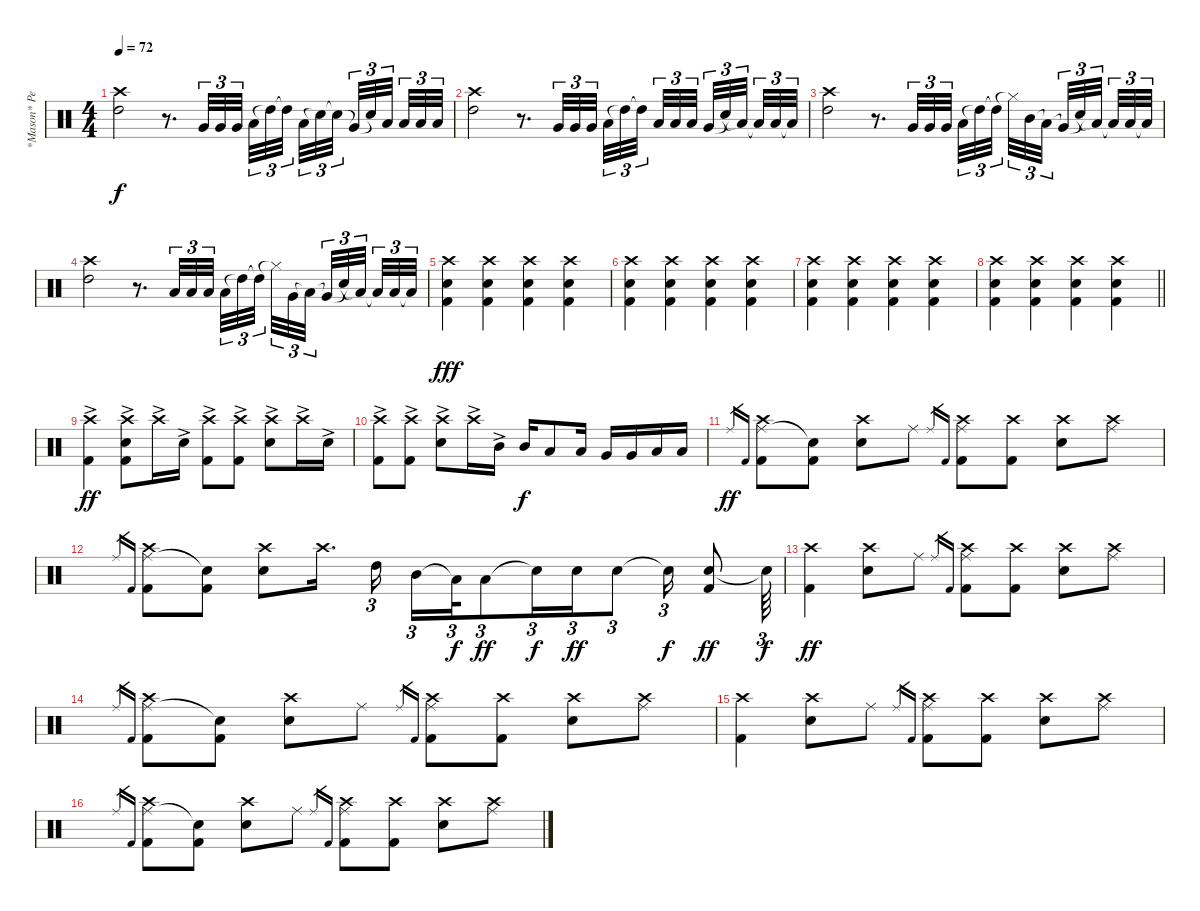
\track ("*Mason* Percussion" "*Mason* Pe") {instrument percussion}
\staff {score}
\articulation defaults
\ts (4 4)
\tempo 72
\clef neutral
\ks c
("Crash high (hit)" "High Tom (hit)").2{dy f} r.8{d} "Very Low Tom (hit)".32{tu (3 2)} "Very Low Tom (hit)".32{tu (3 2)} "Very Low Tom (hit)".32{tu (3 2)} "Low Tom (hit)".32{tu (3 2)} "High Tom (hit)"{t}.32{tu (3 2)} "High Tom (hit)"{t}.32{tu (3 2) beam splitsecondary} "Low Tom (hit)".32{tu (3 2)} "Snare (hit)"{t}.32{tu (3 2)} "Snare (hit)"{t}.32{tu (3 2) beam splitsecondary} "Very Low Tom (hit)"{t}.32{tu (3 2)} "Snare (hit)"{t}.32{tu (3 2)} "Low Tom (hit)".32{tu (3 2) beam splitsecondary} "Low Tom (hit)".32{tu (3 2)} "Low Tom (hit)".32{tu (3 2)} "Low Tom (hit)".32{tu (3 2)} |
("Crash high (hit)" "High Tom (hit)").2{volume 16} r.8{d} "Very Low Tom (hit)".32{tu (3 2)} "Very Low Tom (hit)".32{tu (3 2)} "Very Low Tom (hit)".32{tu (3 2)} "Low Tom (hit)".32{tu (3 2)} "High Tom (hit)"{t}.32{tu (3 2)} "High Tom (hit)"{t}.32{tu (3 2) beam splitsecondary} "Low Tom (hit)".32{tu (3 2)} "Low Tom (hit)".32{tu (3 2)} "Low Tom (hit)".32{tu (3 2) beam splitsecondary} "Very Low Tom (hit)".32{tu (3 2)} "Snare (hit)"{t}.32{tu (3 2)} "Low Tom (hit)"{t}.32{tu (3 2) beam splitsecondary} "Low Tom (hit)"{t}.32{tu (3 2)} "Low Tom (hit)".32{tu (3 2)} "Low Tom (hit)"{t}.32{tu (3 2)} |
("Crash high (hit)" "High Tom (hit)").2 r.8{d} "Very Low Tom (hit)".32{tu (3 2)} "Very Low Tom (hit)".32{tu (3 2)} "Very Low Tom (hit)".32{tu (3 2)} "Low Tom (hit)".32{tu (3 2)} "High Tom (hit)"{t}.32{tu (3 2)} "High Tom (hit)"{t}.32{tu (3 2) beam splitsecondary} "Hi-Hat (closed)"{t}.32{tu (3 2)} "Mid Tom (hit)".32{tu (3 2)} "Low Tom (hit)"{t}.32{tu (3 2) beam splitsecondary} "Very Low Tom (hit)"{t}.32{tu (3 2)} "Snare (hit)"{t}.32{tu (3 2)} "Low Tom (hit)"{t}.32{tu (3 2) beam splitsecondary} "Low Tom (hit)"{t}.32{tu (3 2) volume 0} "Low Tom (hit)".32{tu (3 2)} "Low Tom (hit)"{t}.32{tu (3 2)} |
("Crash high (hit)" "High Tom (hit)").2 r.8{d} "Low Floor Tom (hit)".32{tu (3 2)} "Low Floor Tom (hit)".32{tu (3 2)} "Low Floor Tom (hit)".32{tu (3 2)} "Low Tom (hit)".32{tu (3 2)} "High Tom (hit)"{t}.32{tu (3 2)} "High Tom (hit)"{t}.32{tu (3 2) beam splitsecondary} "Hi-Hat (closed)"{t}.32{tu (3 2)} "Very Low Tom (hit)".32{tu (3 2)} "Low Tom (hit)"{t}.32{tu (3 2) beam splitsecondary} "Very Low Tom (hit)"{t}.32{tu (3 2)} "Snare (hit)"{t}.32{tu (3 2)} "Low Tom (hit)"{t}.32{tu (3 2) beam splitsecondary} "Low Tom (hit)"{t}.32{tu (3 2)} "Low Tom (hit)".32{tu (3 2)} "Low Tom (hit)"{t}.32{tu (3 2)} |
("Crash high (hit)" "Snare (hit) 2" "Kick (hit) 2").4{dy fff volume 16 balance 8} ("Crash high (hit)" "Snare (hit) 2" "Kick (hit) 2").4 ("Crash high (hit)" "Snare (hit) 2" "Kick (hit) 2").4 ("Crash high (hit)" "Snare (hit) 2" "Kick (hit) 2").4 |
("Crash high (hit)" "Snare (hit) 2" "Kick (hit) 2").4 ("Crash high (hit)" "Snare (hit) 2" "Kick (hit) 2").4 ("Crash high (hit)" "Snare (hit) 2" "Kick (hit) 2").4 ("Crash high (hit)" "Snare (hit) 2" "Kick (hit) 2").4 |
("Crash high (hit)" "Snare (hit) 2" "Kick (hit) 2").4 ("Crash high (hit)" "Snare (hit) 2" "Kick (hit) 2").4 ("Crash high (hit)" "Snare (hit) 2" "Kick (hit) 2").4 ("Crash high (hit)" "Snare (hit) 2" "Kick (hit) 2").4 |
\barLineRight lightlight
("Crash high (hit)" "Snare (hit) 2" "Kick (hit) 2").4 ("Crash high (hit)" "Snare (hit) 2" "Kick (hit) 2").4 ("Crash high (hit)" "Snare (hit) 2" "Kick (hit) 2").4 ("Crash high (hit)" "Snare (hit) 2" "Kick (hit) 2").4 |
("Crash high (hit)"{ac} "Kick (hit) 2"{ac}).4{dy ff volume 16 balance 2} ("Crash high (hit)"{ac} "Snare (hit) 2"{ac} "Kick (hit) 2"{ac}).8 "Crash high (hit)"{ac}.16 "Snare (hit) 2"{ac}.16 ("Crash high (hit)"{ac} "Kick (hit) 2"{ac}).8 ("Crash high (hit)"{ac} "Kick (hit) 2"{ac}).8 ("Crash high (hit)"{ac} "Snare (hit) 2"{ac}).8 "Crash high (hit)"{ac}.16 "Snare (hit) 2"{ac}.16 |
("Crash high (hit)"{ac} "Kick (hit) 2"{ac}).8 ("Crash high (hit)"{ac} "Kick (hit) 2"{ac}).8 ("Crash high (hit)"{ac} "Snare (hit) 2"{ac}).8 "Crash high (hit)"{ac}.16 "Mid Tom (hit)"{ac}.16 "Mid Tom (hit)".16{dy f} "Low Tom (hit)".8 "Low Tom (hit)".16 "Very Low Tom (hit)".16 "Very Low Tom (hit)".16 "Low Floor Tom (hit)".16 "Low Floor Tom (hit)".16 |
"Ride (middle)".16{gr dy ff} "Kick (hit) 2".16{gr} ("Ride (middle)" "Crash high (hit)" "Kick (hit) 2").8 ("Snare (hit)"{t} "Kick (hit) 2").8 ("Crash high (hit)" "Snare (hit) 2").8 "Ride (middle)".8 "Ride (middle)".16{gr} "Kick (hit) 2".16{gr} ("Ride (middle)" "Crash high (hit)" "Kick (hit) 2").8 ("Crash high (hit)" "Kick (hit) 2").8 ("Crash high (hit)" "Snare (hit) 2").8 ("Ride (middle)" "Crash high (hit)").8 |
"Ride (middle)".16{gr} "Kick (hit) 2".16{gr} ("Ride (middle)" "Crash high (hit)" "Kick (hit) 2").8 ("Snare (hit)"{t} "Kick (hit) 2").8 ("Crash high (hit)" "Snare (hit) 2").8 "Crash high (hit)".16{d} "High Tom (hit)".16{tu (3 2)} "Mid Tom (hit)".16{tu (3 2)} "Low Tom (hit)"{t}.32{tu (3 2) dy f} "Low Tom (hit)".8{tu (3 2) dy ff} "Snare (hit)"{t}.16{tu (3 2) dy f} "Snare (hit) 2".16{tu (3 2) dy ff} "Snare (hit) 2".8{tu (3 2)} "Snare (hit) 2"{t}.16{tu (3 2) dy f} ("Snare (hit) 2" "Kick (hit) 2").8{dy ff} "Snare (hit)"{t}.64{tu (3 2) dy f} |
("Crash high (hit)" "Kick (hit) 2").4{dy ff} ("Crash high (hit)" "Snare (hit) 2").8 "Ride (middle)".8 "Ride (middle)".16{gr} "Kick (hit) 2".16{gr} ("Ride (middle)" "Crash high (hit)" "Kick (hit) 2").8 ("Crash high (hit)" "Kick (hit) 2").8 ("Crash high (hit)" "Snare (hit) 2").8 ("Ride (middle)" "Crash high (hit)").8 |
"Ride (middle)".16{gr} "Kick (hit) 2".16{gr} ("Ride (middle)" "Crash high (hit)" "Kick (hit) 2").8 ("Snare (hit)"{t} "Kick (hit) 2").8 ("Crash high (hit)" "Snare (hit) 2").8 "Ride (middle)".8 "Ride (middle)".16{gr} "Kick (hit) 2".16{gr} ("Ride (middle)" "Crash high (hit)" "Kick (hit) 2").8 ("Crash high (hit)" "Kick (hit) 2").8 ("Crash high (hit)" "Snare (hit) 2").8 ("Ride (middle)" "Crash high (hit)").8 |
("Crash high (hit)" "Kick (hit) 2").4 ("Crash high (hit)" "Snare (hit) 2").8 "Ride (middle)".8 "Ride (middle)".16{gr} "Kick (hit) 2".16{gr} ("Ride (middle)" "Crash high (hit)" "Kick (hit) 2").8 ("Crash high (hit)" "Kick (hit) 2").8 ("Crash high (hit)" "Snare (hit) 2").8 ("Ride (middle)" "Crash high (hit)").8 |
"Ride (middle)".16{gr} "Kick (hit) 2".16{gr} ("Ride (middle)" "Crash high (hit)" "Kick (hit) 2").8 ("Snare (hit)"{t} "Kick (hit) 2").8 ("Crash high (hit)" "Snare (hit) 2").8 "Ride (middle)".8 "Ride (middle)".16{gr} "Kick (hit) 2".16{gr} ("Ride (middle)" "Crash high (hit)" "Kick (hit) 2").8 ("Crash high (hit)" "Kick (hit) 2").8 ("Crash high (hit)" "Snare (hit) 2").8 ("Ride (middle)" "Crash high (hit)").8
